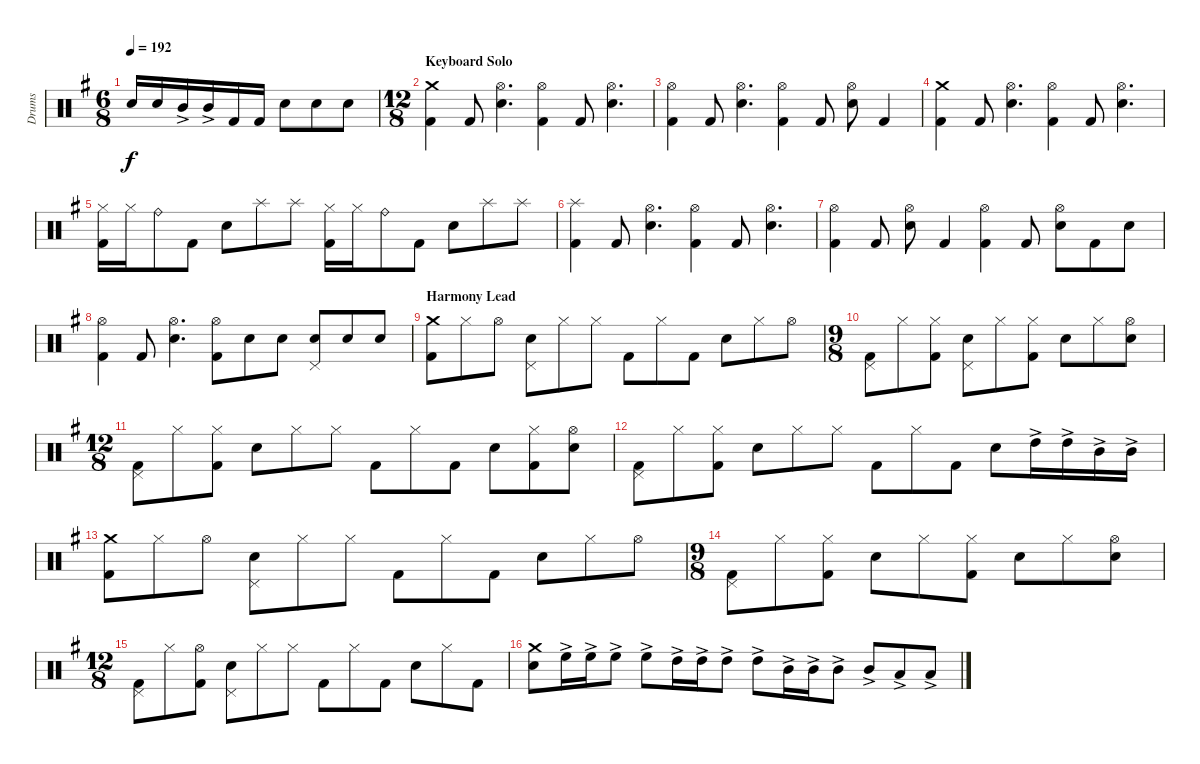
\defaultSystemsLayout 4
\bracketExtendMode groupsimilarinstruments
\otherSystemsTrackNameOrientation horizontal
\track ("Drumkit" "Drums") {multiBarRest instrument percussion}
\staff {score}
\articulation defaults
\ts (6 8)
\tempo 192
\clef neutral
\ks g "Snare (hit) 2"{acc forcenatural}.16{dy f} "Snare (hit) 2"{acc forcenatural}.16 "Mid Tom (hit)"{ac acc forcenatural}.16 "Mid Tom (hit)"{ac acc forcenatural}.16 "Kick (hit) 2"{acc forcenatural}.16 "Kick (hit) 2"{acc forcenatural}.16 "Snare (hit) 2"{acc forcenatural}.8 "Snare (hit) 2"{acc forcenatural}.8 "Snare (hit) 2"{acc forcenatural}.8
|
\ts (12 8)
\beaming (8 3 3 3 3)
\section ("" "Keyboard Solo")
("Crash medium (hit)"{acc forcenatural} "Kick (hit) 2"{acc forcenatural}).4 "Kick (hit) 2"{acc forcenatural}.8 ("Snare (hit) 2"{acc forcenatural} "Hi-Hat (open)"{acc forcenatural}).4{d} ("Hi-Hat (open)"{acc forcenatural} "Kick (hit) 2"{acc forcenatural}).4 "Kick (hit) 2"{acc forcenatural}.8 ("Hi-Hat (open)"{acc forcenatural} "Snare (hit) 2"{acc forcenatural}).4{d} |
("Hi-Hat (open)"{acc forcenatural} "Kick (hit) 2"{acc forcenatural}).4 "Kick (hit) 2"{acc forcenatural}.8 ("Hi-Hat (open)"{acc forcenatural} "Snare (hit) 2"{acc forcenatural}).4{d} ("Hi-Hat (open)"{acc forcenatural} "Kick (hit) 2"{acc forcenatural}).4 "Kick (hit) 2"{acc forcenatural}.8 ("Hi-Hat (open)"{acc forcenatural} "Snare (hit) 2"{acc forcenatural}).8 "Kick (hit) 2"{acc forcenatural}.4 |
("Crash medium (hit)"{acc forcenatural} "Kick (hit) 2"{acc forcenatural}).4 "Kick (hit) 2"{acc forcenatural}.8 ("Hi-Hat (open)"{acc forcenatural} "Snare (hit) 2"{acc forcenatural}).4{d} ("Hi-Hat (open)"{acc forcenatural} "Kick (hit) 2"{acc forcenatural}).4 "Kick (hit) 2"{acc forcenatural}.8 ("Hi-Hat (open)"{acc forcenatural} "Snare (hit) 2"{acc forcenatural}).4{d} |
("Hi-Hat (closed)"{acc forcenatural} "Kick (hit) 2"{acc forcenatural}).16 "Hi-Hat (closed)"{acc forcenatural}.16 "Ride (bell)"{acc forcenatural}.8 "Kick (hit) 2"{acc forcenatural}.8 "Snare (hit) 2"{acc forcenatural}.8 "Splash (hit)"{acc forcenatural}.8 "Splash (hit)"{acc forcenatural}.8 ("Hi-Hat (closed)"{acc forcenatural} "Kick (hit) 2"{acc forcenatural}).16 "Hi-Hat (closed)"{acc forcenatural}.16 "Ride (bell)"{acc forcenatural}.8 "Kick (hit) 2"{acc forcenatural}.8 "Snare (hit) 2"{acc forcenatural}.8 "Splash (hit)"{acc forcenatural}.8 "Splash (hit)"{acc forcenatural}.8 |
("Splash (hit)"{acc forcenatural} "Kick (hit) 2"{acc forcenatural}).4 "Kick (hit) 2"{acc forcenatural}.8 ("Hi-Hat (open)"{acc forcenatural} "Snare (hit) 2"{acc forcenatural}).4{d} ("Hi-Hat (open)"{acc forcenatural} "Kick (hit) 2"{acc forcenatural}).4 "Kick (hit) 2"{acc forcenatural}.8 ("Hi-Hat (open)"{acc forcenatural} "Snare (hit) 2"{acc forcenatural}).4{d} |
("Hi-Hat (open)"{acc forcenatural} "Kick (hit) 2"{acc forcenatural}).4 "Kick (hit) 2"{acc forcenatural}.8 ("Hi-Hat (open)"{acc forcenatural} "Snare (hit) 2"{acc forcenatural}).8 "Kick (hit) 2"{acc forcenatural}.4 ("Hi-Hat (open)"{acc forcenatural} "Kick (hit) 2"{acc forcenatural}).4 "Kick (hit) 2"{acc forcenatural}.8 ("Hi-Hat (open)"{acc forcenatural} "Snare (hit) 2"{acc forcenatural}).8 "Kick (hit) 2"{acc forcenatural}.8 "Snare (hit) 2"{acc forcenatural}.8 |
("Hi-Hat (open)"{acc forcenatural} "Kick (hit) 2"{acc forcenatural}).4 "Kick (hit) 2"{acc forcenatural}.8 ("Hi-Hat (open)"{acc forcenatural} "Snare (hit) 2"{acc forcenatural}).4{d} ("Hi-Hat (open)"{acc forcenatural} "Kick (hit) 2"{acc forcenatural}).8 "Snare (hit) 2"{acc forcenatural}.8 "Snare (hit) 2"{acc forcenatural}.8 ("Snare (hit) 2"{acc forcenatural} "Pedal Hi-Hat (hit)"{acc forcenatural}).8 "Snare (hit) 2"{acc forcenatural}.8 "Snare (hit) 2"{acc forcenatural}.8 |
\section ("" "Harmony Lead")
("Crash medium (hit)"{acc forcenatural} "Kick (hit) 2"{acc forcenatural}).8 "Hi-Hat (closed)"{acc forcenatural}.8 "Hi-Hat (open)"{acc forcenatural}.8 ("Snare (hit) 2"{acc forcenatural} "Pedal Hi-Hat (hit)"{acc forcenatural}).8 "Hi-Hat (closed)"{acc forcenatural}.8 "Hi-Hat (closed)"{acc forcenatural}.8 "Kick (hit) 2"{acc forcenatural}.8 "Hi-Hat (closed)"{acc forcenatural}.8 "Kick (hit) 2"{acc forcenatural}.8 "Snare (hit) 2"{acc forcenatural}.8 "Hi-Hat (closed)"{acc forcenatural}.8 "Hi-Hat (open)"{acc forcenatural}.8 |
\ts (9 8)
\beaming (8 3 3 3 3)
("Kick (hit) 2"{acc forcenatural} "Pedal Hi-Hat (hit)"{acc forcenatural}).8 "Hi-Hat (closed)"{acc forcenatural}.8 ("Hi-Hat (closed)"{acc forcenatural} "Kick (hit) 2"{acc forcenatural}).8 ("Snare (hit) 2"{acc forcenatural} "Pedal Hi-Hat (hit)"{acc forcenatural}).8 "Hi-Hat (closed)"{acc forcenatural}.8 ("Hi-Hat (closed)"{acc forcenatural} "Kick (hit) 2"{acc forcenatural}).8 "Snare (hit) 2"{acc forcenatural}.8 "Hi-Hat (closed)"{acc forcenatural}.8 ("Hi-Hat (open)"{acc forcenatural} "Snare (hit) 2"{acc forcenatural}).8 |
\ts (12 8)
\beaming (8 3 3 3 3)
("Kick (hit) 2"{acc forcenatural} "Pedal Hi-Hat (hit)"{acc forcenatural}).8 "Hi-Hat (closed)"{acc forcenatural}.8 ("Hi-Hat (closed)"{acc forcenatural} "Kick (hit) 2"{acc forcenatural}).8 "Snare (hit) 2"{acc forcenatural}.8 "Hi-Hat (closed)"{acc forcenatural}.8 "Hi-Hat (closed)"{acc forcenatural}.8 "Kick (hit) 2"{acc forcenatural}.8 "Hi-Hat (closed)"{acc forcenatural}.8 "Kick (hit) 2"{acc forcenatural}.8 "Snare (hit) 2"{acc forcenatural}.8 ("Hi-Hat (closed)"{acc forcenatural} "Kick (hit) 2"{acc forcenatural}).8 ("Snare (hit) 2"{acc forcenatural} "Hi-Hat (open)"{acc forcenatural}).8 |
("Kick (hit) 2"{acc forcenatural} "Pedal Hi-Hat (hit)"{acc forcenatural}).8 "Hi-Hat (closed)"{acc forcenatural}.8 ("Hi-Hat (closed)"{acc forcenatural} "Kick (hit) 2"{acc forcenatural}).8 "Snare (hit) 2"{acc forcenatural}.8 "Hi-Hat (closed)"{acc forcenatural}.8 "Hi-Hat (closed)"{acc forcenatural}.8 "Kick (hit) 2"{acc forcenatural}.8 "Hi-Hat (closed)"{acc forcenatural}.8 "Kick (hit) 2"{acc forcenatural}.8 "Snare (hit) 2"{acc forcenatural}.8 "High Tom (hit)"{ac acc forcenatural}.16 "High Tom (hit)"{ac acc forcenatural}.16 "Mid Tom (hit)"{ac acc forcenatural}.16 "Mid Tom (hit)"{ac acc forcenatural}.16 |
("Crash medium (hit)"{acc forcenatural} "Kick (hit) 2"{acc forcenatural}).8 "Hi-Hat (closed)"{acc forcenatural}.8 "Hi-Hat (open)"{acc forcenatural}.8 ("Snare (hit) 2"{acc forcenatural} "Pedal Hi-Hat (hit)"{acc forcenatural}).8 "Hi-Hat (closed)"{acc forcenatural}.8 "Hi-Hat (closed)"{acc forcenatural}.8 "Kick (hit) 2"{acc forcenatural}.8 "Hi-Hat (closed)"{acc forcenatural}.8 "Kick (hit) 2"{acc forcenatural}.8 "Snare (hit) 2"{acc forcenatural}.8 "Hi-Hat (closed)"{acc forcenatural}.8 "Hi-Hat (open)"{acc forcenatural}.8 |
\ts (9 8)
\beaming (8 3 3 3 3)
("Kick (hit) 2"{acc forcenatural} "Pedal Hi-Hat (hit)"{acc forcenatural}).8 "Hi-Hat (closed)"{acc forcenatural}.8 ("Hi-Hat (closed)"{acc forcenatural} "Kick (hit) 2"{acc forcenatural}).8 "Snare (hit) 2"{acc forcenatural}.8 "Hi-Hat (closed)"{acc forcenatural}.8 ("Hi-Hat (closed)"{acc forcenatural} "Kick (hit) 2"{acc forcenatural}).8 "Snare (hit) 2"{acc forcenatural}.8 "Hi-Hat (closed)"{acc forcenatural}.8 ("Hi-Hat (open)"{acc forcenatural} "Snare (hit) 2"{acc forcenatural}).8 |
\ts (12 8)
\beaming (8 3 3 3 3)
("Kick (hit) 2"{acc forcenatural} "Pedal Hi-Hat (hit)"{acc forcenatural}).8 "Hi-Hat (closed)"{acc forcenatural}.8 ("Hi-Hat (open)"{acc forcenatural} "Kick (hit) 2"{acc forcenatural}).8 ("Snare (hit) 2"{acc forcenatural} "Pedal Hi-Hat (hit)"{acc forcenatural}).8 "Hi-Hat (closed)"{acc forcenatural}.8 "Hi-Hat (closed)"{acc forcenatural}.8 "Kick (hit) 2"{acc forcenatural}.8 "Hi-Hat (closed)"{acc forcenatural}.8 "Kick (hit) 2"{acc forcenatural}.8 "Snare (hit) 2"{acc forcenatural}.8 "Hi-Hat (closed)"{acc forcenatural}.8 "Kick (hit) 2"{acc forcenatural}.8 |
("Crash medium (hit)"{acc forcenatural} "Snare (hit) 2"{acc forcenatural}).8 "High Floor Tom (hit)"{ac acc forcenatural}.16 "High Floor Tom (hit)"{ac acc forcenatural}.16 "High Floor Tom (hit)"{ac acc forcenatural}.8 "High Floor Tom (hit)"{ac acc forcenatural}.8 "High Tom (hit)"{ac acc forcenatural}.16 "High Tom (hit)"{ac acc forcenatural}.16 "High Tom (hit)"{ac acc forcenatural}.8 "High Tom (hit)"{ac acc forcenatural}.8 "Mid Tom (hit)"{ac acc forcenatural}.16 "Mid Tom (hit)"{ac acc forcenatural}.16 "Mid Tom (hit)"{ac acc forcenatural}.8 "Mid Tom (hit)"{ac acc forcenatural}.8 "Low Tom (hit)"{ac acc forcenatural}.8 "Low Tom (hit)"{ac acc forcenatural}.8
